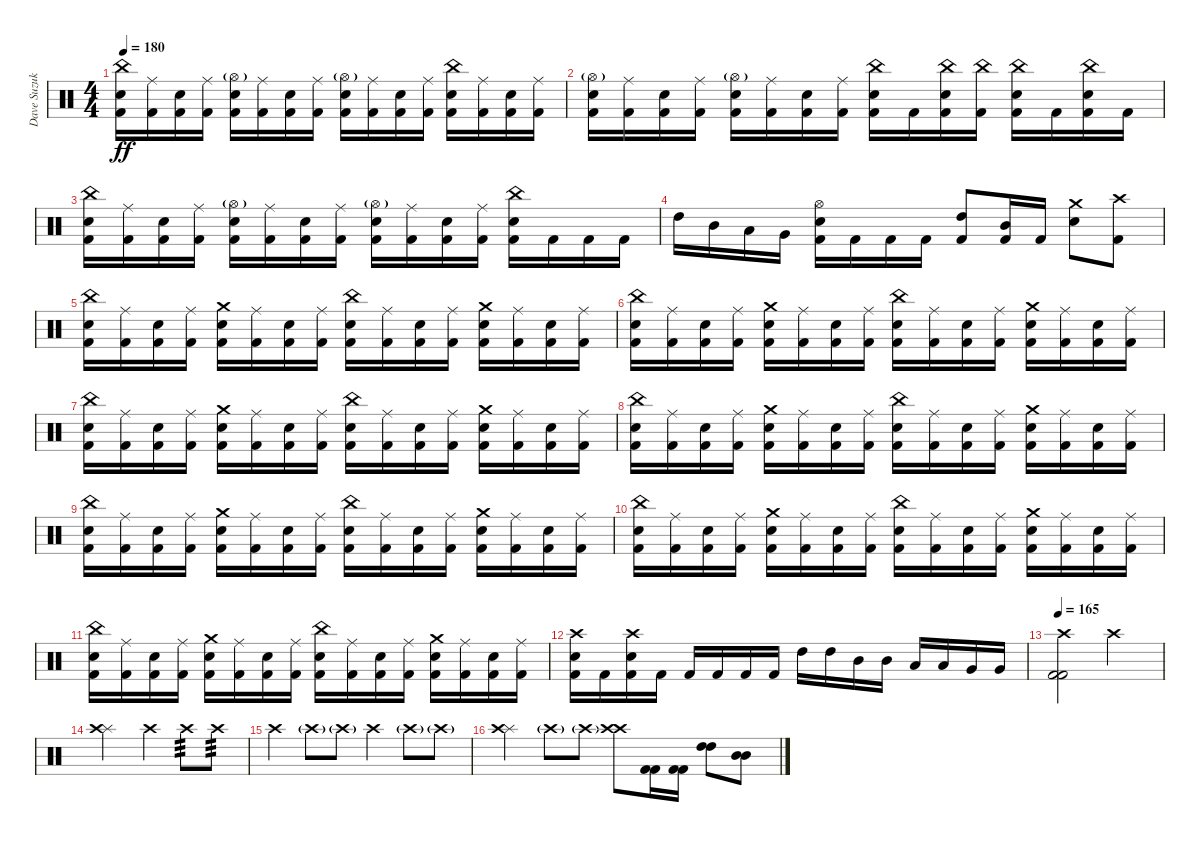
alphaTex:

\track ("Dave Suzuki - Drums" "Dave Suzuk") {instrument percussion}
\staff {score}
\articulation defaults
\ts (4 4)
\tempo 180
\clef neutral
\ks c
("China (hit)" "Electric Snare (hit)" "Kick (hit) 2").16{dy ff} ("Ride (middle)" "Kick (hit) 2").16 ("Electric Snare (hit)" "Kick (hit) 2").16 ("Ride (middle)" "Kick (hit) 2").16 ("Hi-Hat (open)"{g} "Electric Snare (hit)" "Kick (hit) 2").16 ("Ride (middle)" "Kick (hit) 2").16 ("Electric Snare (hit)" "Kick (hit) 2").16 ("Ride (middle)" "Kick (hit) 2").16 ("Hi-Hat (open)"{g} "Electric Snare (hit)" "Kick (hit) 2").16 ("Ride (middle)" "Kick (hit) 2").16 ("Electric Snare (hit)" "Kick (hit) 2").16 ("Ride (middle)" "Kick (hit) 2").16 ("China (hit)" "Electric Snare (hit)" "Kick (hit) 2").16 ("Ride (middle)" "Kick (hit) 2").16 ("Electric Snare (hit)" "Kick (hit) 2").16 ("Ride (middle)" "Kick (hit) 2").16 |
("Hi-Hat (open)"{g} "Electric Snare (hit)" "Kick (hit) 2").16 ("Ride (middle)" "Kick (hit) 2").16 ("Electric Snare (hit)" "Kick (hit) 2").16 ("Ride (middle)" "Kick (hit) 2").16 ("Hi-Hat (open)"{g} "Electric Snare (hit)" "Kick (hit) 2").16 ("Ride (middle)" "Kick (hit) 2").16 ("Electric Snare (hit)" "Kick (hit) 2").16 ("Ride (middle)" "Kick (hit) 2").16 ("China (hit)" "Electric Snare (hit)" "Kick (hit) 2").16 "Kick (hit) 2".16 ("China (hit)" "Electric Snare (hit)" "Kick (hit) 2").16 ("China (hit)" "Kick (hit) 2").16 ("China (hit)" "Electric Snare (hit)" "Kick (hit) 2").16 "Kick (hit) 2".16 ("China (hit)" "Electric Snare (hit)" "Kick (hit) 2").16 "Kick (hit) 2".16 |
("China (hit)" "Electric Snare (hit)" "Kick (hit) 2").16 ("Ride (middle)" "Kick (hit) 2").16 ("Electric Snare (hit)" "Kick (hit) 2").16 ("Ride (middle)" "Kick (hit) 2").16 ("Hi-Hat (open)"{g} "Electric Snare (hit)" "Kick (hit) 2").16 ("Ride (middle)" "Kick (hit) 2").16 ("Electric Snare (hit)" "Kick (hit) 2").16 ("Ride (middle)" "Kick (hit) 2").16 ("Hi-Hat (open)"{g} "Electric Snare (hit)" "Kick (hit) 2").16 ("Ride (middle)" "Kick (hit) 2").16 ("Electric Snare (hit)" "Kick (hit) 2").16 ("Ride (middle)" "Kick (hit) 2").16 ("China (hit)" "Electric Snare (hit)" "Kick (hit) 2").16 "Kick (hit) 2".16 "Kick (hit) 2".16 "Kick (hit) 2".16 |
"High Tom (hit)".16 "Mid Tom (hit)".16 "Low Tom (hit)".16 "Very Low Tom (hit)".16 ("Hi-Hat (open)" "Electric Snare (hit)" "Kick (hit) 2").16 "Kick (hit) 2".16 "Kick (hit) 2".16 "Kick (hit) 2".16 ("High Tom (hit)" "Kick (hit) 2").8 ("Mid Tom (hit)" "Kick (hit) 2").16 "Kick (hit) 2".16 ("Crash medium (hit)" "Electric Snare (hit)").8 ("Crash high (hit)" "Kick (hit) 2").8 |
("China (hit)" "Electric Snare (hit)" "Kick (hit) 2").16 ("Ride (middle)" "Kick (hit) 2").16 ("Electric Snare (hit)" "Kick (hit) 2").16 ("Ride (middle)" "Kick (hit) 2").16 ("Crash medium (hit)" "Electric Snare (hit)" "Kick (hit) 2").16 ("Ride (middle)" "Kick (hit) 2").16 ("Electric Snare (hit)" "Kick (hit) 2").16 ("Ride (middle)" "Kick (hit) 2").16 ("China (hit)" "Electric Snare (hit)" "Kick (hit) 2").16 ("Ride (middle)" "Kick (hit) 2").16 ("Electric Snare (hit)" "Kick (hit) 2").16 ("Ride (middle)" "Kick (hit) 2").16 ("Crash medium (hit)" "Electric Snare (hit)" "Kick (hit) 2").16 ("Ride (middle)" "Kick (hit) 2").16 ("Electric Snare (hit)" "Kick (hit) 2").16 ("Ride (middle)" "Kick (hit) 2").16 |
("China (hit)" "Electric Snare (hit)" "Kick (hit) 2").16 ("Ride (middle)" "Kick (hit) 2").16 ("Electric Snare (hit)" "Kick (hit) 2").16 ("Ride (middle)" "Kick (hit) 2").16 ("Crash medium (hit)" "Electric Snare (hit)" "Kick (hit) 2").16 ("Ride (middle)" "Kick (hit) 2").16 ("Electric Snare (hit)" "Kick (hit) 2").16 ("Ride (middle)" "Kick (hit) 2").16 ("China (hit)" "Electric Snare (hit)" "Kick (hit) 2").16 ("Ride (middle)" "Kick (hit) 2").16 ("Electric Snare (hit)" "Kick (hit) 2").16 ("Ride (middle)" "Kick (hit) 2").16 ("Crash medium (hit)" "Electric Snare (hit)" "Kick (hit) 2").16 ("Ride (middle)" "Kick (hit) 2").16 ("Electric Snare (hit)" "Kick (hit) 2").16 ("Ride (middle)" "Kick (hit) 2").16 |
("China (hit)" "Electric Snare (hit)" "Kick (hit) 2").16 ("Ride (middle)" "Kick (hit) 2").16 ("Electric Snare (hit)" "Kick (hit) 2").16 ("Ride (middle)" "Kick (hit) 2").16 ("Crash medium (hit)" "Electric Snare (hit)" "Kick (hit) 2").16 ("Ride (middle)" "Kick (hit) 2").16 ("Electric Snare (hit)" "Kick (hit) 2").16 ("Ride (middle)" "Kick (hit) 2").16 ("China (hit)" "Electric Snare (hit)" "Kick (hit) 2").16 ("Ride (middle)" "Kick (hit) 2").16 ("Electric Snare (hit)" "Kick (hit) 2").16 ("Ride (middle)" "Kick (hit) 2").16 ("Crash medium (hit)" "Electric Snare (hit)" "Kick (hit) 2").16 ("Ride (middle)" "Kick (hit) 2").16 ("Electric Snare (hit)" "Kick (hit) 2").16 ("Ride (middle)" "Kick (hit) 2").16 |
("China (hit)" "Electric Snare (hit)" "Kick (hit) 2").16 ("Ride (middle)" "Kick (hit) 2").16 ("Electric Snare (hit)" "Kick (hit) 2").16 ("Ride (middle)" "Kick (hit) 2").16 ("Crash medium (hit)" "Electric Snare (hit)" "Kick (hit) 2").16 ("Ride (middle)" "Kick (hit) 2").16 ("Electric Snare (hit)" "Kick (hit) 2").16 ("Ride (middle)" "Kick (hit) 2").16 ("China (hit)" "Electric Snare (hit)" "Kick (hit) 2").16 ("Ride (middle)" "Kick (hit) 2").16 ("Electric Snare (hit)" "Kick (hit) 2").16 ("Ride (middle)" "Kick (hit) 2").16 ("Crash medium (hit)" "Electric Snare (hit)" "Kick (hit) 2").16 ("Ride (middle)" "Kick (hit) 2").16 ("Electric Snare (hit)" "Kick (hit) 2").16 ("Ride (middle)" "Kick (hit) 2").16 |
("China (hit)" "Electric Snare (hit)" "Kick (hit) 2").16 ("Ride (middle)" "Kick (hit) 2").16 ("Electric Snare (hit)" "Kick (hit) 2").16 ("Ride (middle)" "Kick (hit) 2").16 ("Crash medium (hit)" "Electric Snare (hit)" "Kick (hit) 2").16 ("Ride (middle)" "Kick (hit) 2").16 ("Electric Snare (hit)" "Kick (hit) 2").16 ("Ride (middle)" "Kick (hit) 2").16 ("China (hit)" "Electric Snare (hit)" "Kick (hit) 2").16 ("Ride (middle)" "Kick (hit) 2").16 ("Electric Snare (hit)" "Kick (hit) 2").16 ("Ride (middle)" "Kick (hit) 2").16 ("Crash medium (hit)" "Electric Snare (hit)" "Kick (hit) 2").16 ("Ride (middle)" "Kick (hit) 2").16 ("Electric Snare (hit)" "Kick (hit) 2").16 ("Ride (middle)" "Kick (hit) 2").16 |
("China (hit)" "Electric Snare (hit)" "Kick (hit) 2").16 ("Ride (middle)" "Kick (hit) 2").16 ("Electric Snare (hit)" "Kick (hit) 2").16 ("Ride (middle)" "Kick (hit) 2").16 ("Crash medium (hit)" "Electric Snare (hit)" "Kick (hit) 2").16 ("Ride (middle)" "Kick (hit) 2").16 ("Electric Snare (hit)" "Kick (hit) 2").16 ("Ride (middle)" "Kick (hit) 2").16 ("China (hit)" "Electric Snare (hit)" "Kick (hit) 2").16 ("Ride (middle)" "Kick (hit) 2").16 ("Electric Snare (hit)" "Kick (hit) 2").16 ("Ride (middle)" "Kick (hit) 2").16 ("Crash medium (hit)" "Electric Snare (hit)" "Kick (hit) 2").16 ("Ride (middle)" "Kick (hit) 2").16 ("Electric Snare (hit)" "Kick (hit) 2").16 ("Ride (middle)" "Kick (hit) 2").16 |
("China (hit)" "Electric Snare (hit)" "Kick (hit) 2").16 ("Ride (middle)" "Kick (hit) 2").16 ("Electric Snare (hit)" "Kick (hit) 2").16 ("Ride (middle)" "Kick (hit) 2").16 ("Crash medium (hit)" "Electric Snare (hit)" "Kick (hit) 2").16 ("Ride (middle)" "Kick (hit) 2").16 ("Electric Snare (hit)" "Kick (hit) 2").16 ("Ride (middle)" "Kick (hit) 2").16 ("China (hit)" "Electric Snare (hit)" "Kick (hit) 2").16 ("Ride (middle)" "Kick (hit) 2").16 ("Electric Snare (hit)" "Kick (hit) 2").16 ("Ride (middle)" "Kick (hit) 2").16 ("Crash medium (hit)" "Electric Snare (hit)" "Kick (hit) 2").16 ("Ride (middle)" "Kick (hit) 2").16 ("Electric Snare (hit)" "Kick (hit) 2").16 ("Ride (middle)" "Kick (hit) 2").16 |
("Crash high (hit)" "Electric Snare (hit)" "Kick (hit) 2").16 "Kick (hit) 2".16 ("Crash high (hit)" "Electric Snare (hit)" "Kick (hit) 2").16 "Kick (hit) 2".16 "Kick (hit) 2".16 "Kick (hit) 2".16 "Kick (hit) 2".16 "Kick (hit) 2".16 "High Tom (hit)".16 "High Tom (hit)".16 "Mid Tom (hit)".16 "Mid Tom (hit)".16 "Low Tom (hit)".16 "Low Tom (hit)".16 "Very Low Tom (hit)".16 "Very Low Tom (hit)".16 |
\tempo 165
("Crash high (hit)" "Kick (hit) 2" "Kick (hit) 2").2 "Crash high (hit)".2 |
("Splash (hit)" "Crash high (hit)").2 "Crash high (hit)".4 "Crash high (hit)".8{tp 3} "Crash high (hit)".8{tp 3} |
"Crash high (hit)".4 "Crash high (hit)"{g}.8 "Crash high (hit)"{g}.8 "Crash high (hit)".4 "Crash high (hit)"{g}.8 "Crash high (hit)"{g}.8 |
("Splash (hit)" "Crash high (hit)").4 "Crash high (hit)"{g}.8 "Crash high (hit)"{g}.8 ("Crash high (hit)" "Crash high (hit)").8 ("Kick (hit) 2" "Kick (hit) 2").16 ("Kick (hit) 2" "Kick (hit) 2").16 ("High Tom (hit)" "High Tom (hit)").8 ("Mid Tom (hit)" "Mid Tom (hit)").8
